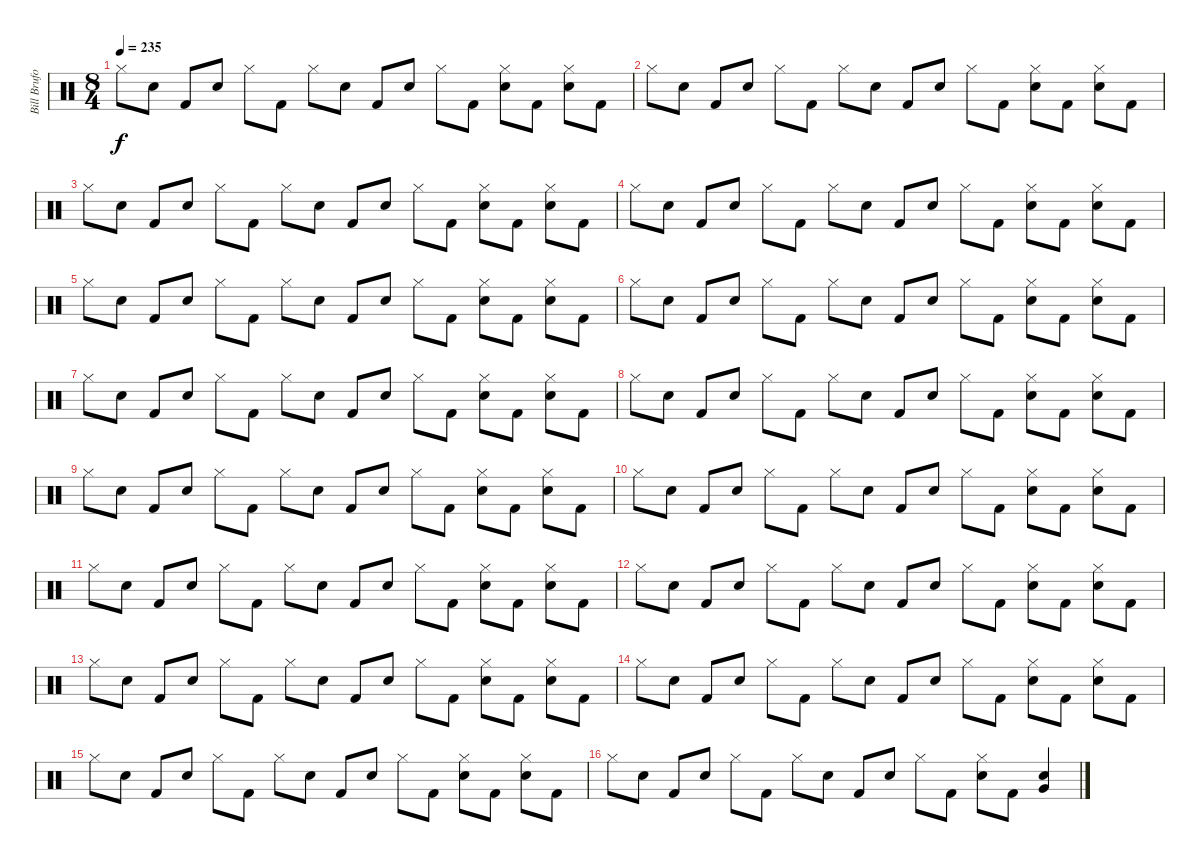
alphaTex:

\track ("Bill Bruford (Drums)" "Bill Brufo") {instrument percussion}
\staff {score}
\articulation defaults
\ts (8 4)
\tempo 235
\clef neutral
\ks c "Hi-Hat (closed)".8{dy f} "Snare (hit) 2".8 "Kick (hit) 2".8 "Snare (hit) 2".8 "Hi-Hat (closed)".8 "Kick (hit) 2".8 "Hi-Hat (closed)".8 "Snare (hit) 2".8 "Kick (hit) 2".8 "Snare (hit) 2".8 "Hi-Hat (closed)".8 "Kick (hit) 2".8
("Hi-Hat (closed)" "Snare (hit) 2").8 "Kick (hit) 2".8 ("Hi-Hat (closed)" "Snare (hit) 2").8 "Kick (hit) 2".8 |
"Hi-Hat (closed)".8 "Snare (hit) 2".8 "Kick (hit) 2".8 "Snare (hit) 2".8 "Hi-Hat (closed)".8 "Kick (hit) 2".8 "Hi-Hat (closed)".8 "Snare (hit) 2".8 "Kick (hit) 2".8 "Snare (hit) 2".8 "Hi-Hat (closed)".8 "Kick (hit) 2".8 ("Hi-Hat (closed)" "Snare (hit) 2").8 "Kick (hit) 2".8 ("Hi-Hat (closed)" "Snare (hit) 2").8 "Kick (hit) 2".8 |
"Hi-Hat (closed)".8 "Snare (hit) 2".8 "Kick (hit) 2".8 "Snare (hit) 2".8 "Hi-Hat (closed)".8 "Kick (hit) 2".8 "Hi-Hat (closed)".8 "Snare (hit) 2".8 "Kick (hit) 2".8 "Snare (hit) 2".8 "Hi-Hat (closed)".8 "Kick (hit) 2".8 ("Hi-Hat (closed)" "Snare (hit) 2").8 "Kick (hit) 2".8 ("Hi-Hat (closed)" "Snare (hit) 2").8 "Kick (hit) 2".8 |
"Hi-Hat (closed)".8 "Snare (hit) 2".8 "Kick (hit) 2".8 "Snare (hit) 2".8 "Hi-Hat (closed)".8 "Kick (hit) 2".8 "Hi-Hat (closed)".8 "Snare (hit) 2".8 "Kick (hit) 2".8 "Snare (hit) 2".8 "Hi-Hat (closed)".8 "Kick (hit) 2".8 ("Hi-Hat (closed)" "Snare (hit) 2").8 "Kick (hit) 2".8 ("Hi-Hat (closed)" "Snare (hit) 2").8 "Kick (hit) 2".8 |
"Hi-Hat (closed)".8 "Snare (hit) 2".8 "Kick (hit) 2".8 "Snare (hit) 2".8 "Hi-Hat (closed)".8 "Kick (hit) 2".8 "Hi-Hat (closed)".8 "Snare (hit) 2".8 "Kick (hit) 2".8 "Snare (hit) 2".8 "Hi-Hat (closed)".8 "Kick (hit) 2".8 ("Hi-Hat (closed)" "Snare (hit) 2").8 "Kick (hit) 2".8 ("Hi-Hat (closed)" "Snare (hit) 2").8 "Kick (hit) 2".8 |
"Hi-Hat (closed)".8 "Snare (hit) 2".8 "Kick (hit) 2".8 "Snare (hit) 2".8 "Hi-Hat (closed)".8 "Kick (hit) 2".8 "Hi-Hat (closed)".8 "Snare (hit) 2".8 "Kick (hit) 2".8 "Snare (hit) 2".8 "Hi-Hat (closed)".8 "Kick (hit) 2".8 ("Hi-Hat (closed)" "Snare (hit) 2").8 "Kick (hit) 2".8 ("Hi-Hat (closed)" "Snare (hit) 2").8 "Kick (hit) 2".8 |
"Hi-Hat (closed)".8 "Snare (hit) 2".8 "Kick (hit) 2".8 "Snare (hit) 2".8 "Hi-Hat (closed)".8 "Kick (hit) 2".8 "Hi-Hat (closed)".8 "Snare (hit) 2".8 "Kick (hit) 2".8 "Snare (hit) 2".8 "Hi-Hat (closed)".8 "Kick (hit) 2".8 ("Hi-Hat (closed)" "Snare (hit) 2").8 "Kick (hit) 2".8 ("Hi-Hat (closed)" "Snare (hit) 2").8 "Kick (hit) 2".8 |
"Hi-Hat (closed)".8 "Snare (hit) 2".8 "Kick (hit) 2".8 "Snare (hit) 2".8 "Hi-Hat (closed)".8 "Kick (hit) 2".8 "Hi-Hat (closed)".8 "Snare (hit) 2".8 "Kick (hit) 2".8 "Snare (hit) 2".8 "Hi-Hat (closed)".8 "Kick (hit) 2".8 ("Hi-Hat (closed)" "Snare (hit) 2").8 "Kick (hit) 2".8 ("Hi-Hat (closed)" "Snare (hit) 2").8 "Kick (hit) 2".8 |
"Hi-Hat (closed)".8 "Snare (hit) 2".8 "Kick (hit) 2".8 "Snare (hit) 2".8 "Hi-Hat (closed)".8 "Kick (hit) 2".8 "Hi-Hat (closed)".8 "Snare (hit) 2".8 "Kick (hit) 2".8 "Snare (hit) 2".8 "Hi-Hat (closed)".8 "Kick (hit) 2".8 ("Hi-Hat (closed)" "Snare (hit) 2").8 "Kick (hit) 2".8 ("Hi-Hat (closed)" "Snare (hit) 2").8 "Kick (hit) 2".8 |
"Hi-Hat (closed)".8 "Snare (hit) 2".8 "Kick (hit) 2".8 "Snare (hit) 2".8 "Hi-Hat (closed)".8 "Kick (hit) 2".8 "Hi-Hat (closed)".8 "Snare (hit) 2".8 "Kick (hit) 2".8 "Snare (hit) 2".8 "Hi-Hat (closed)".8 "Kick (hit) 2".8 ("Hi-Hat (closed)" "Snare (hit) 2").8 "Kick (hit) 2".8 ("Hi-Hat (closed)" "Snare (hit) 2").8 "Kick (hit) 2".8 |
"Hi-Hat (closed)".8 "Snare (hit) 2".8 "Kick (hit) 2".8 "Snare (hit) 2".8 "Hi-Hat (closed)".8 "Kick (hit) 2".8 "Hi-Hat (closed)".8 "Snare (hit) 2".8 "Kick (hit) 2".8 "Snare (hit) 2".8 "Hi-Hat (closed)".8 "Kick (hit) 2".8 ("Hi-Hat (closed)" "Snare (hit) 2").8 "Kick (hit) 2".8 ("Hi-Hat (closed)" "Snare (hit) 2").8 "Kick (hit) 2".8 |
"Hi-Hat (closed)".8 "Snare (hit) 2".8 "Kick (hit) 2".8 "Snare (hit) 2".8 "Hi-Hat (closed)".8 "Kick (hit) 2".8 "Hi-Hat (closed)".8 "Snare (hit) 2".8 "Kick (hit) 2".8 "Snare (hit) 2".8 "Hi-Hat (closed)".8 "Kick (hit) 2".8 ("Hi-Hat (closed)" "Snare (hit) 2").8 "Kick (hit) 2".8 ("Hi-Hat (closed)" "Snare (hit) 2").8 "Kick (hit) 2".8 |
"Hi-Hat (closed)".8 "Snare (hit) 2".8 "Kick (hit) 2".8 "Snare (hit) 2".8 "Hi-Hat (closed)".8 "Kick (hit) 2".8 "Hi-Hat (closed)".8 "Snare (hit) 2".8 "Kick (hit) 2".8 "Snare (hit) 2".8 "Hi-Hat (closed)".8 "Kick (hit) 2".8 ("Hi-Hat (closed)" "Snare (hit) 2").8 "Kick (hit) 2".8 ("Hi-Hat (closed)" "Snare (hit) 2").8 "Kick (hit) 2".8 |
"Hi-Hat (closed)".8 "Snare (hit) 2".8 "Kick (hit) 2".8 "Snare (hit) 2".8 "Hi-Hat (closed)".8 "Kick (hit) 2".8 "Hi-Hat (closed)".8 "Snare (hit) 2".8 "Kick (hit) 2".8 "Snare (hit) 2".8 "Hi-Hat (closed)".8 "Kick (hit) 2".8 ("Hi-Hat (closed)" "Snare (hit) 2").8 "Kick (hit) 2".8 ("Hi-Hat (closed)" "Snare (hit) 2").8 "Kick (hit) 2".8 |
"Hi-Hat (closed)".8 "Snare (hit) 2".8 "Kick (hit) 2".8 "Snare (hit) 2".8 "Hi-Hat (closed)".8 "Kick (hit) 2".8 "Hi-Hat (closed)".8 "Snare (hit) 2".8 "Kick (hit) 2".8 "Snare (hit) 2".8 "Hi-Hat (closed)".8 "Kick (hit) 2".8 ("Hi-Hat (closed)" "Snare (hit) 2").8 "Kick (hit) 2".8 ("Hi-Hat (closed)" "Snare (hit) 2").8 "Kick (hit) 2".8 |
"Hi-Hat (closed)".8 "Snare (hit) 2".8 "Kick (hit) 2".8 "Snare (hit) 2".8 "Hi-Hat (closed)".8 "Kick (hit) 2".8 "Hi-Hat (closed)".8 "Snare (hit) 2".8 "Kick (hit) 2".8 "Snare (hit) 2".8 "Hi-Hat (closed)".8 "Kick (hit) 2".8 ("Hi-Hat (closed)" "Snare (hit) 2").8 "Kick (hit) 2".8 ("Very Low Tom (hit)" "Snare (hit) 2").4
